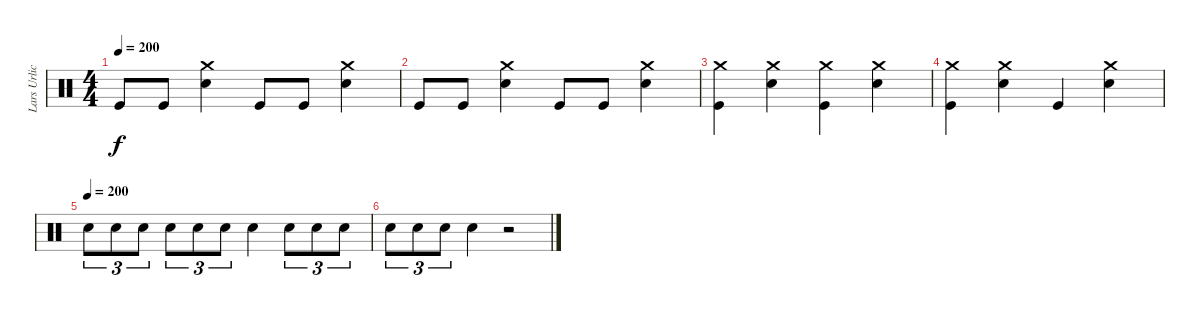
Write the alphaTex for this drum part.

\track ("Lars Urlich" "Lars Urlic") {instrument percussion}
\staff {score}
\articulation defaults
\ts (4 4)
\tempo 200
\clef neutral
\ks c "Kick (hit)".8{dy f} "Kick (hit)".8
("Snare (hit) 2" "Crash medium (hit)").4 "Kick (hit)".8 "Kick (hit)".8 ("Snare (hit) 2" "Crash medium (hit)").4 |
"Kick (hit)".8 "Kick (hit)".8 ("Snare (hit) 2" "Crash medium (hit)").4 "Kick (hit)".8 "Kick (hit)".8 ("Snare (hit) 2" "Crash medium (hit)").4 |
("Crash medium (hit)" "Kick (hit)").4 ("Crash medium (hit)" "Snare (hit) 2").4 ("Crash medium (hit)" "Kick (hit)").4 ("Crash medium (hit)" "Snare (hit) 2").4 |
("Kick (hit)" "Crash medium (hit)").4 ("Snare (hit) 2" "Crash medium (hit)").4 "Kick (hit)".4 ("Snare (hit) 2" "Crash medium (hit)").4 |
\tempo (200)
"Snare (hit) 2".8{tu (3 2)} "Snare (hit) 2".8{tu (3 2)} "Snare (hit) 2".8{tu (3 2)} "Snare (hit) 2".8{tu (3 2)} "Snare (hit) 2".8{tu (3 2)} "Snare (hit) 2".8{tu (3 2)} "Snare (hit) 2".4 "Snare (hit) 2".8{tu (3 2)} "Snare (hit) 2".8{tu (3 2)} "Snare (hit) 2".8{tu (3 2)} |
"Snare (hit) 2".8{tu (3 2)} "Snare (hit) 2".8{tu (3 2)} "Snare (hit) 2".8{tu (3 2)} "Snare (hit) 2".4 r.2
